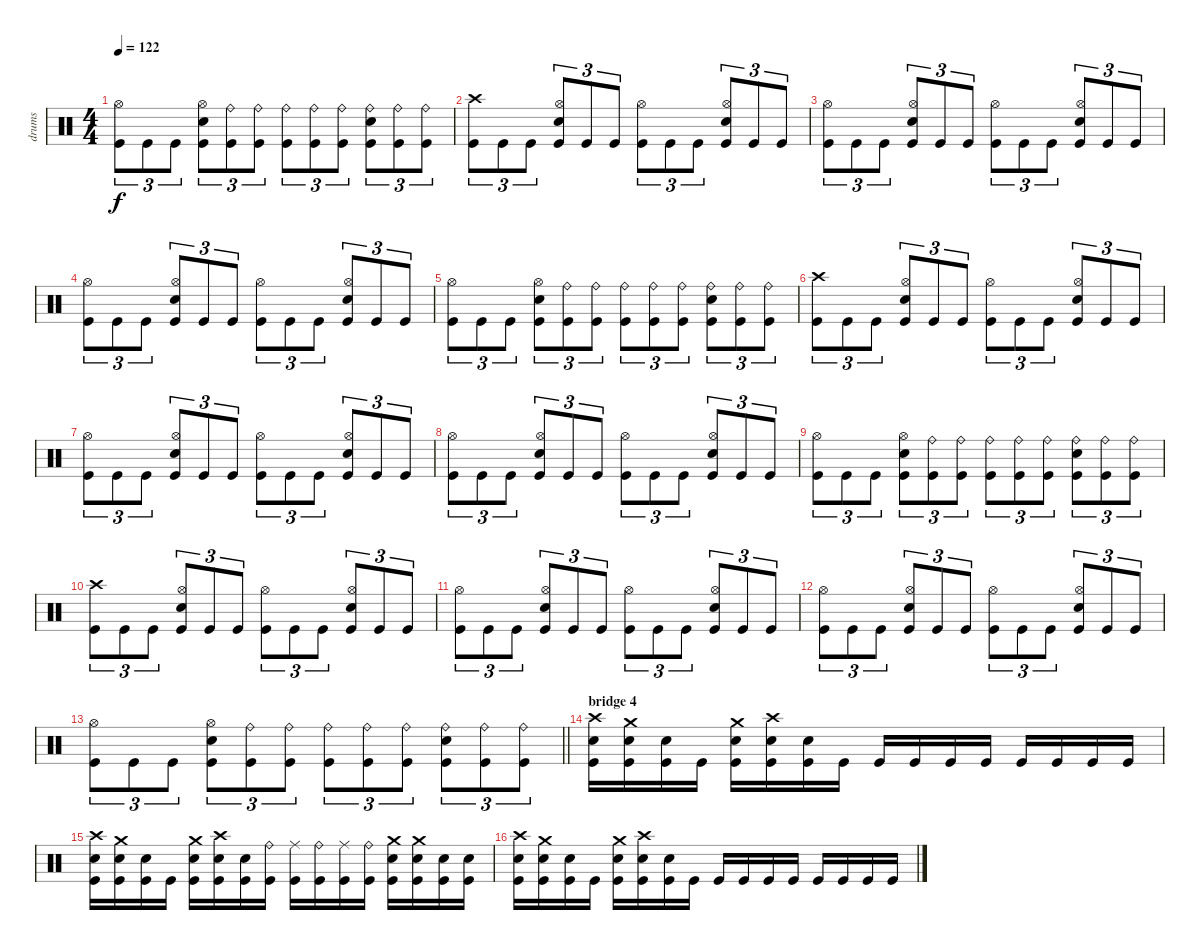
\track ("drums" "drums") {instrument percussion}
\staff {score}
\articulation defaults
\ts (4 4)
\tempo 122
\clef neutral
\ks c
("Kick (hit)" "Hi-Hat (open)").8{tu (3 2) dy f} "Kick (hit)".8{tu (3 2)} "Kick (hit)".8{tu (3 2)} ("Snare (hit) 2" "Kick (hit)" "Hi-Hat (open)").8{tu (3 2)} ("Kick (hit)" "Ride (bell)").8{tu (3 2)} ("Kick (hit)" "Ride (bell)").8{tu (3 2)} ("Kick (hit)" "Ride (bell)").8{tu (3 2)} ("Kick (hit)" "Ride (bell)").8{tu (3 2)} ("Kick (hit)" "Ride (bell)").8{tu (3 2)} ("Snare (hit) 2" "Kick (hit)" "Ride (bell)").8{tu (3 2)} ("Kick (hit)" "Ride (bell)").8{tu (3 2)} ("Kick (hit)" "Ride (bell)").8{tu (3 2)} |
("Kick (hit)" "Crash high (hit)").8{tu (3 2)} "Kick (hit)".8{tu (3 2)} "Kick (hit)".8{tu (3 2)} ("Snare (hit) 2" "Kick (hit)" "Hi-Hat (open)").8{tu (3 2)} "Kick (hit)".8{tu (3 2)} "Kick (hit)".8{tu (3 2)} ("Kick (hit)" "Hi-Hat (open)").8{tu (3 2)} "Kick (hit)".8{tu (3 2)} "Kick (hit)".8{tu (3 2)} ("Snare (hit) 2" "Kick (hit)" "Hi-Hat (open)").8{tu (3 2)} "Kick (hit)".8{tu (3 2)} "Kick (hit)".8{tu (3 2)} |
("Kick (hit)" "Hi-Hat (open)").8{tu (3 2)} "Kick (hit)".8{tu (3 2)} "Kick (hit)".8{tu (3 2)} ("Snare (hit) 2" "Kick (hit)" "Hi-Hat (open)").8{tu (3 2)} "Kick (hit)".8{tu (3 2)} "Kick (hit)".8{tu (3 2)} ("Kick (hit)" "Hi-Hat (open)").8{tu (3 2)} "Kick (hit)".8{tu (3 2)} "Kick (hit)".8{tu (3 2)} ("Snare (hit) 2" "Kick (hit)" "Hi-Hat (open)").8{tu (3 2)} "Kick (hit)".8{tu (3 2)} "Kick (hit)".8{tu (3 2)} |
("Kick (hit)" "Hi-Hat (open)").8{tu (3 2)} "Kick (hit)".8{tu (3 2)} "Kick (hit)".8{tu (3 2)} ("Snare (hit) 2" "Kick (hit)" "Hi-Hat (open)").8{tu (3 2)} "Kick (hit)".8{tu (3 2)} "Kick (hit)".8{tu (3 2)} ("Kick (hit)" "Hi-Hat (open)").8{tu (3 2)} "Kick (hit)".8{tu (3 2)} "Kick (hit)".8{tu (3 2)} ("Snare (hit) 2" "Kick (hit)" "Hi-Hat (open)").8{tu (3 2)} "Kick (hit)".8{tu (3 2)} "Kick (hit)".8{tu (3 2)} |
("Kick (hit)" "Hi-Hat (open)").8{tu (3 2)} "Kick (hit)".8{tu (3 2)} "Kick (hit)".8{tu (3 2)} ("Snare (hit) 2" "Kick (hit)" "Hi-Hat (open)").8{tu (3 2)} ("Kick (hit)" "Ride (bell)").8{tu (3 2)} ("Kick (hit)" "Ride (bell)").8{tu (3 2)} ("Kick (hit)" "Ride (bell)").8{tu (3 2)} ("Kick (hit)" "Ride (bell)").8{tu (3 2)} ("Kick (hit)" "Ride (bell)").8{tu (3 2)} ("Snare (hit) 2" "Kick (hit)" "Ride (bell)").8{tu (3 2)} ("Kick (hit)" "Ride (bell)").8{tu (3 2)} ("Kick (hit)" "Ride (bell)").8{tu (3 2)} |
("Kick (hit)" "Crash high (hit)").8{tu (3 2)} "Kick (hit)".8{tu (3 2)} "Kick (hit)".8{tu (3 2)} ("Snare (hit) 2" "Kick (hit)" "Hi-Hat (open)").8{tu (3 2)} "Kick (hit)".8{tu (3 2)} "Kick (hit)".8{tu (3 2)} ("Kick (hit)" "Hi-Hat (open)").8{tu (3 2)} "Kick (hit)".8{tu (3 2)} "Kick (hit)".8{tu (3 2)} ("Snare (hit) 2" "Kick (hit)" "Hi-Hat (open)").8{tu (3 2)} "Kick (hit)".8{tu (3 2)} "Kick (hit)".8{tu (3 2)} |
("Kick (hit)" "Hi-Hat (open)").8{tu (3 2)} "Kick (hit)".8{tu (3 2)} "Kick (hit)".8{tu (3 2)} ("Snare (hit) 2" "Kick (hit)" "Hi-Hat (open)").8{tu (3 2)} "Kick (hit)".8{tu (3 2)} "Kick (hit)".8{tu (3 2)} ("Kick (hit)" "Hi-Hat (open)").8{tu (3 2)} "Kick (hit)".8{tu (3 2)} "Kick (hit)".8{tu (3 2)} ("Snare (hit) 2" "Kick (hit)" "Hi-Hat (open)").8{tu (3 2)} "Kick (hit)".8{tu (3 2)} "Kick (hit)".8{tu (3 2)} |
("Kick (hit)" "Hi-Hat (open)").8{tu (3 2)} "Kick (hit)".8{tu (3 2)} "Kick (hit)".8{tu (3 2)} ("Snare (hit) 2" "Kick (hit)" "Hi-Hat (open)").8{tu (3 2)} "Kick (hit)".8{tu (3 2)} "Kick (hit)".8{tu (3 2)} ("Kick (hit)" "Hi-Hat (open)").8{tu (3 2)} "Kick (hit)".8{tu (3 2)} "Kick (hit)".8{tu (3 2)} ("Snare (hit) 2" "Kick (hit)" "Hi-Hat (open)").8{tu (3 2)} "Kick (hit)".8{tu (3 2)} "Kick (hit)".8{tu (3 2)} |
("Kick (hit)" "Hi-Hat (open)").8{tu (3 2)} "Kick (hit)".8{tu (3 2)} "Kick (hit)".8{tu (3 2)} ("Snare (hit) 2" "Kick (hit)" "Hi-Hat (open)").8{tu (3 2)} ("Kick (hit)" "Ride (bell)").8{tu (3 2)} ("Kick (hit)" "Ride (bell)").8{tu (3 2)} ("Kick (hit)" "Ride (bell)").8{tu (3 2)} ("Kick (hit)" "Ride (bell)").8{tu (3 2)} ("Kick (hit)" "Ride (bell)").8{tu (3 2)} ("Snare (hit) 2" "Kick (hit)" "Ride (bell)").8{tu (3 2)} ("Kick (hit)" "Ride (bell)").8{tu (3 2)} ("Kick (hit)" "Ride (bell)").8{tu (3 2)} |
("Kick (hit)" "Crash high (hit)").8{tu (3 2)} "Kick (hit)".8{tu (3 2)} "Kick (hit)".8{tu (3 2)} ("Snare (hit) 2" "Kick (hit)" "Hi-Hat (open)").8{tu (3 2)} "Kick (hit)".8{tu (3 2)} "Kick (hit)".8{tu (3 2)} ("Kick (hit)" "Hi-Hat (open)").8{tu (3 2)} "Kick (hit)".8{tu (3 2)} "Kick (hit)".8{tu (3 2)} ("Snare (hit) 2" "Kick (hit)" "Hi-Hat (open)").8{tu (3 2)} "Kick (hit)".8{tu (3 2)} "Kick (hit)".8{tu (3 2)} |
("Kick (hit)" "Hi-Hat (open)").8{tu (3 2)} "Kick (hit)".8{tu (3 2)} "Kick (hit)".8{tu (3 2)} ("Snare (hit) 2" "Kick (hit)" "Hi-Hat (open)").8{tu (3 2)} "Kick (hit)".8{tu (3 2)} "Kick (hit)".8{tu (3 2)} ("Kick (hit)" "Hi-Hat (open)").8{tu (3 2)} "Kick (hit)".8{tu (3 2)} "Kick (hit)".8{tu (3 2)} ("Snare (hit) 2" "Kick (hit)" "Hi-Hat (open)").8{tu (3 2)} "Kick (hit)".8{tu (3 2)} "Kick (hit)".8{tu (3 2)} |
("Kick (hit)" "Hi-Hat (open)").8{tu (3 2)} "Kick (hit)".8{tu (3 2)} "Kick (hit)".8{tu (3 2)} ("Snare (hit) 2" "Kick (hit)" "Hi-Hat (open)").8{tu (3 2)} "Kick (hit)".8{tu (3 2)} "Kick (hit)".8{tu (3 2)} ("Kick (hit)" "Hi-Hat (open)").8{tu (3 2)} "Kick (hit)".8{tu (3 2)} "Kick (hit)".8{tu (3 2)} ("Snare (hit) 2" "Kick (hit)" "Hi-Hat (open)").8{tu (3 2)} "Kick (hit)".8{tu (3 2)} "Kick (hit)".8{tu (3 2)} |
\barLineRight lightlight
("Kick (hit)" "Hi-Hat (open)").8{tu (3 2)} "Kick (hit)".8{tu (3 2)} "Kick (hit)".8{tu (3 2)} ("Snare (hit) 2" "Kick (hit)" "Hi-Hat (open)").8{tu (3 2)} ("Kick (hit)" "Ride (bell)").8{tu (3 2)} ("Kick (hit)" "Ride (bell)").8{tu (3 2)} ("Kick (hit)" "Ride (bell)").8{tu (3 2)} ("Kick (hit)" "Ride (bell)").8{tu (3 2)} ("Kick (hit)" "Ride (bell)").8{tu (3 2)} ("Snare (hit) 2" "Kick (hit)" "Ride (bell)").8{tu (3 2)} ("Kick (hit)" "Ride (bell)").8{tu (3 2)} ("Kick (hit)" "Ride (bell)").8{tu (3 2)} |
\section ("" "bridge 4")
("Snare (hit) 2" "Kick (hit)" "Crash high (hit)").16 ("Snare (hit) 2" "Kick (hit)" "Crash medium (hit)").16 ("Snare (hit) 2" "Kick (hit)").16 "Kick (hit)".16 ("Snare (hit) 2" "Kick (hit)" "Crash medium (hit)").16 ("Snare (hit) 2" "Kick (hit)" "Crash high (hit)").16 ("Snare (hit) 2" "Kick (hit)").16 "Kick (hit)".16 "Kick (hit)".16 "Kick (hit)".16 "Kick (hit)".16 "Kick (hit)".16 "Kick (hit)".16 "Kick (hit)".16 "Kick (hit)".16 "Kick (hit)".16 |
("Snare (hit) 2" "Kick (hit)" "Crash high (hit)").16 ("Snare (hit) 2" "Kick (hit)" "Crash medium (hit)").16 ("Snare (hit) 2" "Kick (hit)").16 "Kick (hit)".16 ("Snare (hit) 2" "Kick (hit)" "Crash medium (hit)").16 ("Snare (hit) 2" "Kick (hit)" "Crash high (hit)").16 ("Snare (hit) 2" "Kick (hit)").16 ("Kick (hit)" "Ride (bell)").16 ("Kick (hit)" "Ride (middle)").16 ("Kick (hit)" "Ride (bell)").16 ("Kick (hit)" "Ride (middle)").16 ("Kick (hit)" "Ride (bell)").16 ("Snare (hit) 2" "Kick (hit)" "Crash medium (hit)").16 ("Snare (hit) 2" "Kick (hit)" "Crash medium (hit)").16 ("Snare (hit) 2" "Kick (hit)").16 ("Snare (hit) 2" "Kick (hit)").16 |
("Snare (hit) 2" "Kick (hit)" "Crash high (hit)").16 ("Snare (hit) 2" "Kick (hit)" "Crash medium (hit)").16 ("Snare (hit) 2" "Kick (hit)").16 "Kick (hit)".16 ("Snare (hit) 2" "Kick (hit)" "Crash medium (hit)").16 ("Snare (hit) 2" "Kick (hit)" "Crash high (hit)").16 ("Snare (hit) 2" "Kick (hit)").16 "Kick (hit)".16 "Kick (hit)".16 "Kick (hit)".16 "Kick (hit)".16 "Kick (hit)".16 "Kick (hit)".16 "Kick (hit)".16 "Kick (hit)".16 "Kick (hit)".16
